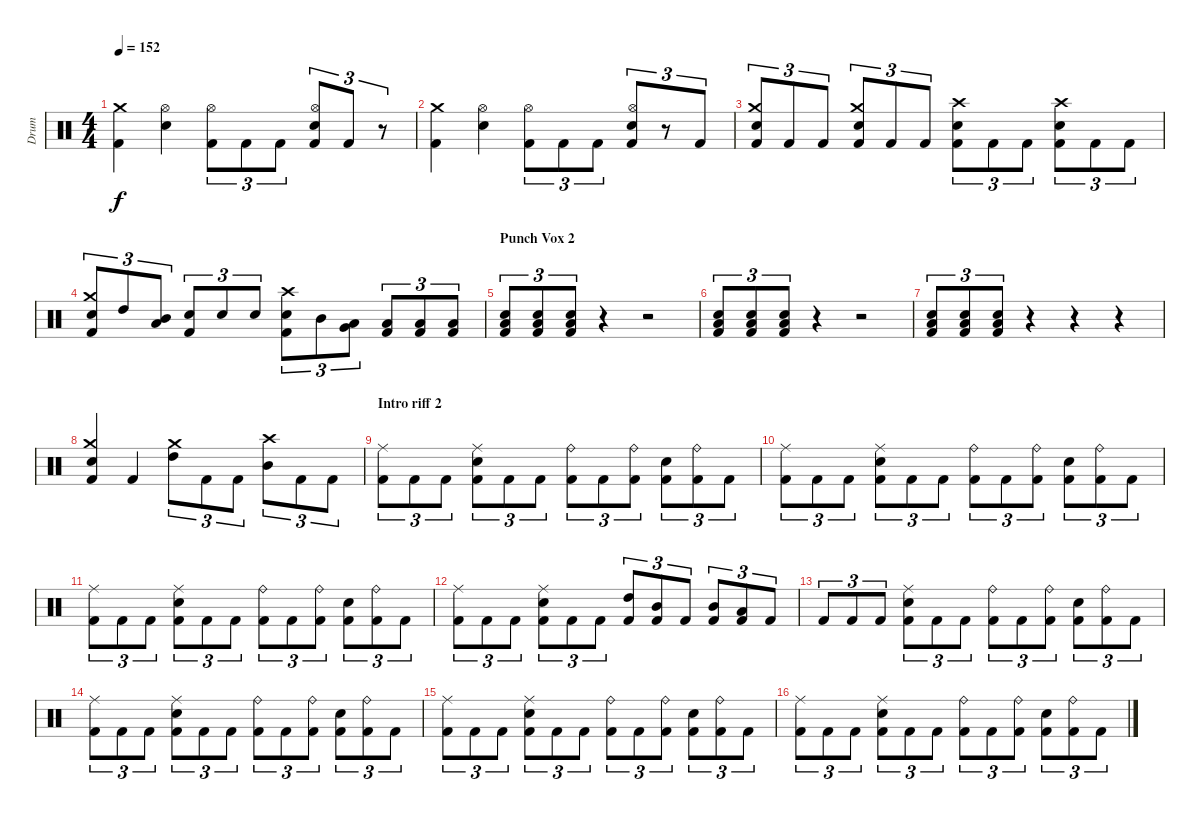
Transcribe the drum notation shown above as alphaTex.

\track ("Drum" "Drum") {instrument percussion}
\staff {score}
\articulation defaults
\ts (4 4)
\tempo 152
\clef neutral
\ks c
("Kick (hit) 2" "Crash medium (hit)").4{dy f} ("Hi-Hat (open)" "Electric Snare (hit)").4 ("Kick (hit) 2" "Hi-Hat (open)").8{tu (3 2)} "Kick (hit) 2".8{tu (3 2)} "Kick (hit) 2".8{tu (3 2)} ("Hi-Hat (open)" "Electric Snare (hit)" "Kick (hit) 2").8{tu (3 2)} "Kick (hit) 2".8{tu (3 2)} r.8{tu (3 2)} |
("Kick (hit) 2" "Crash medium (hit)").4 ("Electric Snare (hit)" "Hi-Hat (open)").4 ("Kick (hit) 2" "Hi-Hat (open)").8{tu (3 2)} "Kick (hit) 2".8{tu (3 2)} "Kick (hit) 2".8{tu (3 2)} ("Electric Snare (hit)" "Hi-Hat (open)" "Kick (hit) 2").8{tu (3 2)} r.8{tu (3 2)} "Kick (hit) 2".8{tu (3 2)} |
("Kick (hit) 2" "Crash medium (hit)" "Electric Snare (hit)").8{tu (3 2)} "Kick (hit) 2".8{tu (3 2)} "Kick (hit) 2".8{tu (3 2)} ("Electric Snare (hit)" "Crash medium (hit)" "Kick (hit) 2").8{tu (3 2)} "Kick (hit) 2".8{tu (3 2)} "Kick (hit) 2".8{tu (3 2)} ("Crash high (hit)" "Kick (hit) 2" "Electric Snare (hit)").8{tu (3 2)} "Kick (hit) 2".8{tu (3 2)} "Kick (hit) 2".8{tu (3 2)} ("Crash high (hit)" "Kick (hit) 2" "Electric Snare (hit)").8{tu (3 2)} "Kick (hit) 2".8{tu (3 2)} "Kick (hit) 2".8{tu (3 2)} |
("Crash medium (hit)" "Kick (hit) 2" "Electric Snare (hit)").8{tu (3 2)} "High Tom (hit)".8{tu (3 2)} ("Mid Tom (hit)" "Low Tom (hit)").8{tu (3 2)} ("Kick (hit) 2" "Electric Snare (hit)").8{tu (3 2)} "Electric Snare (hit)".8{tu (3 2)} "Electric Snare (hit)".8{tu (3 2)} ("Electric Snare (hit)" "Crash high (hit)" "Kick (hit) 2").8{tu (3 2)} "Mid Tom (hit)".8{tu (3 2)} ("Low Tom (hit)" "Very Low Tom (hit)").8{tu (3 2)} ("Low Tom (hit)" "Kick (hit) 2").8{tu (3 2)} ("Low Tom (hit)" "Kick (hit) 2").8{tu (3 2)} ("Low Tom (hit)" "Kick (hit) 2").8{tu (3 2)} |
\section ("" "Punch Vox 2 ")
("Electric Snare (hit)" "Kick (hit) 2" "Low Floor Tom (hit)").8{tu (3 2)} ("Electric Snare (hit)" "Low Floor Tom (hit)" "Kick (hit) 2").8{tu (3 2)} ("Low Floor Tom (hit)" "Kick (hit) 2" "Electric Snare (hit)").8{tu (3 2)} r.4 r.2 |
("Kick (hit) 2" "Electric Snare (hit)" "Low Floor Tom (hit)").8{tu (3 2)} ("Electric Snare (hit)" "Kick (hit) 2" "Low Floor Tom (hit)").8{tu (3 2)} ("Kick (hit) 2" "Low Floor Tom (hit)" "Electric Snare (hit)").8{tu (3 2)} r.4 r.2 |
("Electric Snare (hit)" "Low Floor Tom (hit)" "Kick (hit) 2").8{tu (3 2)} ("Electric Snare (hit)" "Low Floor Tom (hit)" "Kick (hit) 2").8{tu (3 2)} ("Kick (hit) 2" "Low Floor Tom (hit)" "Electric Snare (hit)").8{tu (3 2)} r.4 r.4 r.4 |
("Electric Snare (hit)" "Kick (hit) 2" "Crash medium (hit)").4 "Kick (hit) 2".4 ("Crash medium (hit)" "High Tom (hit)").8{tu (3 2)} "Kick (hit) 2".8{tu (3 2)} "Kick (hit) 2".8{tu (3 2)} ("Crash high (hit)" "Mid Tom (hit)").8{tu (3 2)} "Kick (hit) 2".8{tu (3 2)} "Kick (hit) 2".8{tu (3 2)} |
\section ("" "Intro riff 2")
("Ride (middle)" "Kick (hit) 2").8{tu (3 2)} "Kick (hit) 2".8{tu (3 2)} "Kick (hit) 2".8{tu (3 2)} ("Electric Snare (hit)" "Ride (middle)" "Kick (hit) 2").8{tu (3 2)} "Kick (hit) 2".8{tu (3 2)} "Kick (hit) 2".8{tu (3 2)} ("Kick (hit) 2" "Ride (bell)").8{tu (3 2)} "Kick (hit) 2".8{tu (3 2)} ("Kick (hit) 2" "Ride (bell)").8{tu (3 2)} ("Electric Snare (hit)" "Kick (hit) 2").8{tu (3 2)} ("Kick (hit) 2" "Ride (bell)").8{tu (3 2)} "Kick (hit) 2".8{tu (3 2)} |
("Ride (middle)" "Kick (hit) 2").8{tu (3 2)} "Kick (hit) 2".8{tu (3 2)} "Kick (hit) 2".8{tu (3 2)} ("Kick (hit) 2" "Electric Snare (hit)" "Ride (middle)").8{tu (3 2)} "Kick (hit) 2".8{tu (3 2)} "Kick (hit) 2".8{tu (3 2)} ("Kick (hit) 2" "Ride (bell)").8{tu (3 2)} "Kick (hit) 2".8{tu (3 2)} ("Kick (hit) 2" "Ride (bell)").8{tu (3 2)} ("Electric Snare (hit)" "Kick (hit) 2").8{tu (3 2)} ("Kick (hit) 2" "Ride (bell)").8{tu (3 2)} "Kick (hit) 2".8{tu (3 2)} |
("Kick (hit) 2" "Ride (middle)").8{tu (3 2)} "Kick (hit) 2".8{tu (3 2)} "Kick (hit) 2".8{tu (3 2)} ("Electric Snare (hit)" "Kick (hit) 2" "Ride (middle)").8{tu (3 2)} "Kick (hit) 2".8{tu (3 2)} "Kick (hit) 2".8{tu (3 2)} ("Kick (hit) 2" "Ride (bell)").8{tu (3 2)} "Kick (hit) 2".8{tu (3 2)} ("Kick (hit) 2" "Ride (bell)").8{tu (3 2)} ("Electric Snare (hit)" "Kick (hit) 2").8{tu (3 2)} ("Kick (hit) 2" "Ride (bell)").8{tu (3 2)} "Kick (hit) 2".8{tu (3 2)} |
("Kick (hit) 2" "Ride (middle)").8{tu (3 2)} "Kick (hit) 2".8{tu (3 2)} "Kick (hit) 2".8{tu (3 2)} ("Kick (hit) 2" "Ride (middle)" "Electric Snare (hit)").8{tu (3 2)} "Kick (hit) 2".8{tu (3 2)} "Kick (hit) 2".8{tu (3 2)} ("High Tom (hit)" "Kick (hit) 2").8{tu (3 2)} ("Kick (hit) 2" "Mid Tom (hit)").8{tu (3 2)} "Kick (hit) 2".8{tu (3 2)} ("Kick (hit) 2" "Mid Tom (hit)").8{tu (3 2)} ("Low Tom (hit)" "Kick (hit) 2").8{tu (3 2)} "Kick (hit) 2".8{tu (3 2)} |
"Kick (hit) 2".8{tu (3 2)} "Kick (hit) 2".8{tu (3 2)} "Kick (hit) 2".8{tu (3 2)} ("Kick (hit) 2" "Electric Snare (hit)" "Ride (middle)").8{tu (3 2)} "Kick (hit) 2".8{tu (3 2)} "Kick (hit) 2".8{tu (3 2)} ("Kick (hit) 2" "Ride (bell)").8{tu (3 2)} "Kick (hit) 2".8{tu (3 2)} ("Kick (hit) 2" "Ride (bell)").8{tu (3 2)} ("Kick (hit) 2" "Electric Snare (hit)").8{tu (3 2)} ("Kick (hit) 2" "Ride (bell)").8{tu (3 2)} "Kick (hit) 2".8{tu (3 2)} |
("Ride (middle)" "Kick (hit) 2").8{tu (3 2)} "Kick (hit) 2".8{tu (3 2)} "Kick (hit) 2".8{tu (3 2)} ("Kick (hit) 2" "Ride (middle)" "Electric Snare (hit)").8{tu (3 2)} "Kick (hit) 2".8{tu (3 2)} "Kick (hit) 2".8{tu (3 2)} ("Kick (hit) 2" "Ride (bell)").8{tu (3 2)} "Kick (hit) 2".8{tu (3 2)} ("Kick (hit) 2" "Ride (bell)").8{tu (3 2)} ("Electric Snare (hit)" "Kick (hit) 2").8{tu (3 2)} ("Kick (hit) 2" "Ride (bell)").8{tu (3 2)} "Kick (hit) 2".8{tu (3 2)} |
("Ride (middle)" "Kick (hit) 2").8{tu (3 2)} "Kick (hit) 2".8{tu (3 2)} "Kick (hit) 2".8{tu (3 2)} ("Electric Snare (hit)" "Kick (hit) 2" "Ride (middle)").8{tu (3 2)} "Kick (hit) 2".8{tu (3 2)} "Kick (hit) 2".8{tu (3 2)} ("Kick (hit) 2" "Ride (bell)").8{tu (3 2)} "Kick (hit) 2".8{tu (3 2)} ("Kick (hit) 2" "Ride (bell)").8{tu (3 2)} ("Electric Snare (hit)" "Kick (hit) 2").8{tu (3 2)} ("Kick (hit) 2" "Ride (bell)").8{tu (3 2)} "Kick (hit) 2".8{tu (3 2)} |
("Kick (hit) 2" "Ride (middle)").8{tu (3 2)} "Kick (hit) 2".8{tu (3 2)} "Kick (hit) 2".8{tu (3 2)} ("Ride (middle)" "Kick (hit) 2" "Electric Snare (hit)").8{tu (3 2)} "Kick (hit) 2".8{tu (3 2)} "Kick (hit) 2".8{tu (3 2)} ("Kick (hit) 2" "Ride (bell)").8{tu (3 2)} "Kick (hit) 2".8{tu (3 2)} ("Kick (hit) 2" "Ride (bell)").8{tu (3 2)} ("Electric Snare (hit)" "Kick (hit) 2").8{tu (3 2)} ("Kick (hit) 2" "Ride (bell)").8{tu (3 2)} "Kick (hit) 2".8{tu (3 2)}
